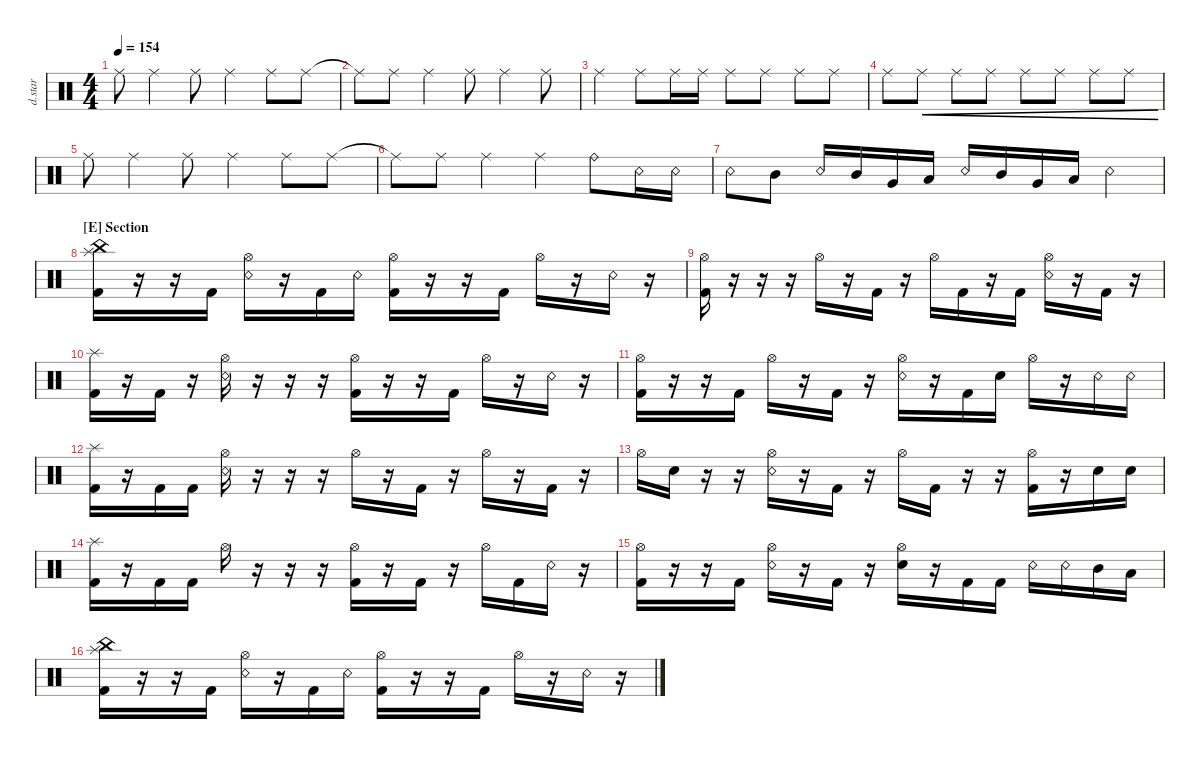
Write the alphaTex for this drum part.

\defaultSystemsLayout 4
\hideDynamics
\bracketExtendMode nobrackets
\otherSystemsTrackNameOrientation horizontal
\track ("Drumkit Star" "d.star") {instrument percussion}
\staff {score}
\articulation defaults
\ts (4 4)
\tempo 154
\clef neutral
\ks c "Ride (middle)".8{dy p beam Down} "Ride (middle)".4{beam Down} "Ride (middle)".8{beam Down} "Ride (middle)".4{beam Down} "Ride (middle)".8{beam Down} "Ride (middle)".8{beam Down}
|
"Ride (middle)"{t}.8{beam Down} "Ride (middle)".8{beam Down} "Ride (middle)".4{beam Down} "Ride (middle)".8{beam Down} "Ride (middle)".4{beam Down} "Ride (middle)".8{beam Down} |
"Ride (middle)".4{beam Down} "Ride (middle)".8{beam Down} "Ride (middle)".16{beam Down} "Ride (middle)".16{beam Down} "Ride (middle)".8{beam Down} "Ride (middle)".8{beam Down} "Ride (middle)".8{beam Down} "Ride (middle)".8{beam Down} |
"Ride (middle)".8{beam Down} "Ride (middle)".8{cre beam Down} "Ride (middle)".8{cre beam Down} "Ride (middle)".8{cre beam Down} "Ride (middle)".8{cre beam Down} "Ride (middle)".8{cre beam Down} "Ride (middle)".8{cre beam Down} "Ride (middle)".8{cre beam Down} |
"Ride (middle)".8{beam Down} "Ride (middle)".4{beam Down} "Ride (middle)".8{beam Down} "Ride (middle)".4{beam Down} "Ride (middle)".8{beam Down} "Ride (middle)".8{beam Down} |
"Ride (middle)"{t}.8{beam Down} "Ride (middle)".8{beam Down} "Ride (middle)".4{beam Down} "Ride (middle)".4{beam Down} "Ride (bell)".8{dy mf beam Down} "Snare (rim shot)".16{dy f beam Down} "Snare (rim shot)".16{beam Down} |
"Snare (rim shot)".8{dy ff beam Down} "Mid Tom (hit)".8{beam Down} "Snare (rim shot)".16{beam Up} "Mid Tom (hit)".16{beam Up} "Very Low Tom (hit)".16{beam Up} "Low Tom (hit)".16{beam Up} "Snare (rim shot)".16{beam Up} "Mid Tom (hit)".16{beam Up} "Very Low Tom (hit)".16{beam Up} "Low Tom (hit)".16{beam Up} "Snare (rim shot)".4{beam Down} |
\section ("E" "Section")
("China (hit)" "Splash (hit)" "Kick (hit) 2").16{beam Down} r.16{beam Down} r.16{beam Down} "Kick (hit) 2".16{beam Down} ("Snare (rim shot)" "Hi-Hat (open)").16{beam Down} r.16{beam Down} "Kick (hit) 2".16{beam Down} "Snare (rim shot)".16{beam Down} ("Hi-Hat (open)" "Kick (hit) 2").16{beam Down} r.16{beam Down} r.16{beam Down} "Kick (hit) 2".16{beam Down} "Hi-Hat (open)".16{beam Down} r.16{beam Down} "Snare (rim shot)".16{beam Down} r.16{beam Down} |
("Kick (hit) 2" "Hi-Hat (open)").16{beam Down} r.16{beam Down} r.16{beam Down} r.16{beam Down} "Hi-Hat (open)".16{beam Down} r.16{beam Down} "Kick (hit) 2".16{beam Down} r.16{beam Down} "Hi-Hat (open)".16{beam Down} "Kick (hit) 2".16{beam Down} r.16{beam Down} "Kick (hit) 2".16{beam Down} ("Hi-Hat (open)" "Snare (rim shot)").16{beam Down} r.16{beam Down} "Kick (hit) 2".16{beam Down} r.16{beam Down} |
("Splash (hit)" "Kick (hit) 2").16{beam Down} r.16{beam Down} "Kick (hit) 2".16{beam Down} r.16{beam Down} ("Snare (rim shot)" "Hi-Hat (open)").16{beam Down} r.16{beam Down} r.16{beam Down} r.16{beam Down} ("Hi-Hat (open)" "Kick (hit) 2").16{beam Down} r.16{beam Down} r.16{beam Down} "Kick (hit) 2".16{beam Down} "Hi-Hat (open)".16{beam Down} r.16{beam Down} "Snare (rim shot)".16{beam Down} r.16{beam Down} |
("Kick (hit) 2" "Hi-Hat (open)").16{beam Down} r.16{beam Down} r.16{beam Down} "Kick (hit) 2".16{beam Down} "Hi-Hat (open)".16{beam Down} r.16{beam Down} "Kick (hit) 2".16{beam Down} r.16{beam Down} ("Hi-Hat (open)" "Snare (rim shot)").16{beam Down} r.16{beam Down} "Kick (hit) 2".16{beam Down} "Snare (hit) 2".16{dy mp beam Down} "Hi-Hat (open)".16{dy ff beam Down} r.16{beam Down} "Snare (rim shot)".16{beam Down} "Snare (rim shot)".16{beam Down} |
("Kick (hit) 2" "Splash (hit)").16{beam Down} r.16{beam Down} "Kick (hit) 2".16{beam Down} "Kick (hit) 2".16{beam Down} ("Hi-Hat (open)" "Snare (rim shot)").16{beam Down} r.16{beam Down} r.16{beam Down} r.16{beam Down} "Hi-Hat (open)".16{beam Down} r.16{beam Down} "Kick (hit) 2".16{beam Down} r.16{beam Down} "Hi-Hat (open)".16{beam Down} r.16{beam Down} "Kick (hit) 2".16{beam Down} r.16{beam Down} |
"Hi-Hat (open)".16{beam Down} "Snare (hit) 2".16{dy mp beam Down} r.16{beam Down} r.16{beam Down} ("Hi-Hat (open)" "Snare (rim shot)").16{dy ff beam Down} r.16{beam Down} "Kick (hit) 2".16{beam Down} r.16{beam Down} "Hi-Hat (open)".16{beam Down} "Kick (hit) 2".16{beam Down} r.16{beam Down} r.16{beam Down} ("Hi-Hat (open)" "Kick (hit) 2").16{beam Down} r.16{beam Down} "Snare (hit) 2".16{dy mp beam Down} "Snare (hit) 2".16{beam Down} |
("Kick (hit) 2" "Splash (hit)").16{dy ff beam Down} r.16{beam Down} "Kick (hit) 2".16{beam Down} "Kick (hit) 2".16{beam Down} "Hi-Hat (open)".16{beam Down} r.16{beam Down} r.16{beam Down} r.16{beam Down} ("Hi-Hat (open)" "Kick (hit) 2").16{beam Down} r.16{beam Down} "Kick (hit) 2".16{beam Down} r.16{beam Down} "Hi-Hat (open)".16{beam Down} "Kick (hit) 2".16{beam Down} "Snare (rim shot)".16{beam Down} r.16{beam Down} |
("Kick (hit) 2" "Hi-Hat (open)").16{beam Down} r.16{beam Down} r.16{beam Down} "Kick (hit) 2".16{beam Down} ("Snare (rim shot)" "Hi-Hat (open)").16{beam Down} r.16{beam Down} "Kick (hit) 2".16{beam Down} r.16{beam Down} ("Snare (hit) 2" "Hi-Hat (open)").16{beam Down} r.16{beam Down} "Kick (hit) 2".16{beam Down} "Kick (hit) 2".16{beam Down} "Snare (rim shot)".16{beam Down} "Snare (rim shot)".16{beam Down} "Mid Tom (hit)".16{beam Down} "Low Tom (hit)".16{beam Down} |
("China (hit)" "Splash (hit)" "Kick (hit) 2").16{beam Down} r.16{beam Down} r.16{beam Down} "Kick (hit) 2".16{beam Down} ("Snare (rim shot)" "Hi-Hat (open)").16{beam Down} r.16{beam Down} "Kick (hit) 2".16{beam Down} "Snare (rim shot)".16{beam Down} ("Hi-Hat (open)" "Kick (hit) 2").16{beam Down} r.16{beam Down} r.16{beam Down} "Kick (hit) 2".16{beam Down} "Hi-Hat (open)".16{beam Down} r.16{beam Down} "Snare (rim shot)".16{beam Down} r.16{beam Down}
